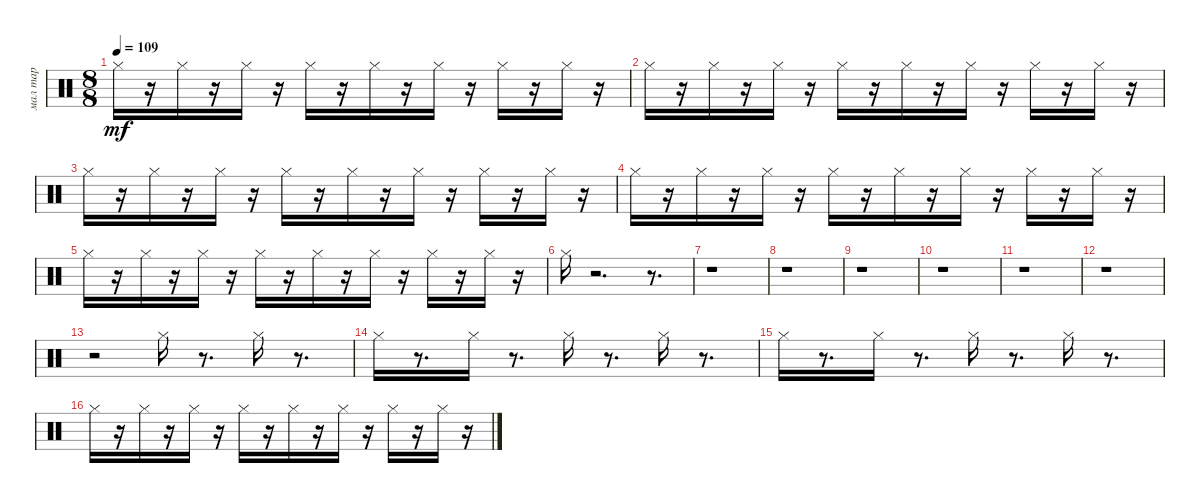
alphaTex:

\track ("мал тар" "мал тар") {instrument percussion}
\staff {score}
\articulation defaults
\ts (8 8)
\tempo 109
\clef neutral
\ks c "Hi-Hat (closed)".16{dy mf}
r.16 "Hi-Hat (closed)".16 r.16 "Hi-Hat (closed)".16 r.16 "Hi-Hat (closed)".16 r.16 "Hi-Hat (closed)".16 r.16 "Hi-Hat (closed)".16 r.16 "Hi-Hat (closed)".16 r.16 "Hi-Hat (closed)".16 r.16 |
"Hi-Hat (closed)".16 r.16 "Hi-Hat (closed)".16 r.16 "Hi-Hat (closed)".16 r.16 "Hi-Hat (closed)".16 r.16 "Hi-Hat (closed)".16 r.16 "Hi-Hat (closed)".16 r.16 "Hi-Hat (closed)".16 r.16 "Hi-Hat (closed)".16 r.16 |
"Hi-Hat (closed)".16 r.16 "Hi-Hat (closed)".16 r.16 "Hi-Hat (closed)".16 r.16 "Hi-Hat (closed)".16 r.16 "Hi-Hat (closed)".16 r.16 "Hi-Hat (closed)".16 r.16 "Hi-Hat (closed)".16 r.16 "Hi-Hat (closed)".16 r.16 |
"Hi-Hat (closed)".16 r.16 "Hi-Hat (closed)".16 r.16 "Hi-Hat (closed)".16 r.16 "Hi-Hat (closed)".16 r.16 "Hi-Hat (closed)".16 r.16 "Hi-Hat (closed)".16 r.16 "Hi-Hat (closed)".16 r.16 "Hi-Hat (closed)".16 r.16 |
"Hi-Hat (closed)".16 r.16 "Hi-Hat (closed)".16 r.16 "Hi-Hat (closed)".16 r.16 "Hi-Hat (closed)".16 r.16 "Hi-Hat (closed)".16 r.16 "Hi-Hat (closed)".16 r.16 "Hi-Hat (closed)".16 r.16 "Hi-Hat (closed)".16 r.16 |
"Hi-Hat (closed)".16 r.2{d} r.8{d} |
r.1 |
r.1 |
r.1 |
r.1 |
r.1 |
r.1 |
r.2 "Hi-Hat (closed)".16 r.8{d} "Hi-Hat (closed)".16 r.8{d} |
"Hi-Hat (closed)".16 r.8{d} "Hi-Hat (closed)".16 r.8{d} "Hi-Hat (closed)".16 r.8{d} "Hi-Hat (closed)".16 r.8{d} |
"Hi-Hat (closed)".16 r.8{d} "Hi-Hat (closed)".16 r.8{d} "Hi-Hat (closed)".16 r.8{d} "Hi-Hat (closed)".16 r.8{d} |
"Hi-Hat (closed)".16 r.16 "Hi-Hat (closed)".16 r.16 "Hi-Hat (closed)".16 r.16 "Hi-Hat (closed)".16 r.16 "Hi-Hat (closed)".16 r.16 "Hi-Hat (closed)".16 r.16 "Hi-Hat (closed)".16 r.16 "Hi-Hat (closed)".16 r.16
